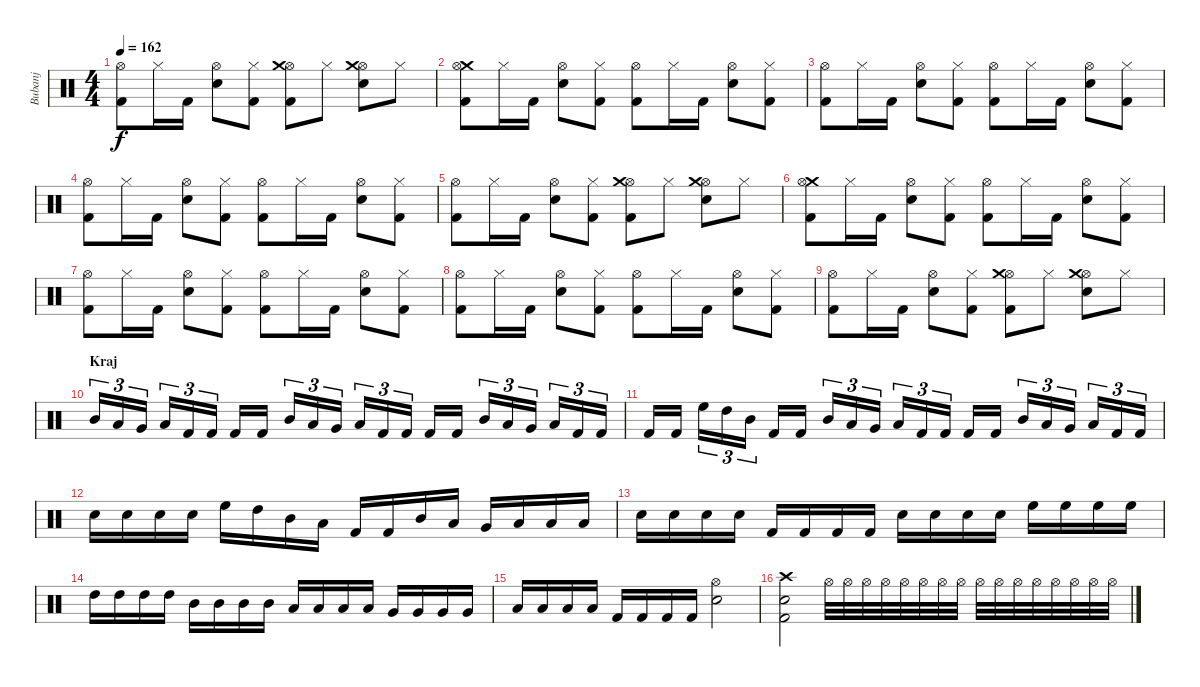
\track ("Bubanj" "Bubanj") {instrument percussion}
\staff {score}
\articulation defaults
\ts (4 4)
\tempo 162
\clef neutral
\ks c
("Hi-Hat (open)" "Kick (hit) 2").8{dy f} "Hi-Hat (closed)".16 "Kick (hit) 2".16 ("Hi-Hat (open)" "Snare (hit) 2").8 ("Hi-Hat (closed)" "Kick (hit) 2").8 ("Hi-Hat (open)" "Kick (hit) 2" "Crash medium (hit)").8 "Hi-Hat (closed)".8 ("Hi-Hat (open)" "Snare (hit) 2" "Crash medium (hit)").8 "Hi-Hat (closed)".8 |
("Crash medium (hit)" "Kick (hit) 2" "Hi-Hat (open)").8 "Hi-Hat (closed)".16 "Kick (hit) 2".16 ("Hi-Hat (open)" "Snare (hit) 2").8 ("Hi-Hat (closed)" "Kick (hit) 2").8 ("Hi-Hat (open)" "Kick (hit) 2").8 "Hi-Hat (closed)".16 "Kick (hit) 2".16 ("Hi-Hat (open)" "Snare (hit) 2").8 ("Hi-Hat (closed)" "Kick (hit) 2").8 |
("Hi-Hat (open)" "Kick (hit) 2").8 "Hi-Hat (closed)".16 "Kick (hit) 2".16 ("Hi-Hat (open)" "Snare (hit) 2").8 ("Hi-Hat (closed)" "Kick (hit) 2").8 ("Hi-Hat (open)" "Kick (hit) 2").8 "Hi-Hat (closed)".16 "Kick (hit) 2".16 ("Hi-Hat (open)" "Snare (hit) 2").8 ("Hi-Hat (closed)" "Kick (hit) 2").8 |
("Hi-Hat (open)" "Kick (hit) 2").8 "Hi-Hat (closed)".16 "Kick (hit) 2".16 ("Hi-Hat (open)" "Snare (hit) 2").8 ("Hi-Hat (closed)" "Kick (hit) 2").8 ("Hi-Hat (open)" "Kick (hit) 2").8 "Hi-Hat (closed)".16 "Kick (hit) 2".16 ("Hi-Hat (open)" "Snare (hit) 2").8 ("Hi-Hat (closed)" "Kick (hit) 2").8 |
("Hi-Hat (open)" "Kick (hit) 2").8 "Hi-Hat (closed)".16 "Kick (hit) 2".16 ("Hi-Hat (open)" "Snare (hit) 2").8 ("Hi-Hat (closed)" "Kick (hit) 2").8 ("Hi-Hat (open)" "Kick (hit) 2" "Crash medium (hit)").8 "Hi-Hat (closed)".8 ("Hi-Hat (open)" "Snare (hit) 2" "Crash medium (hit)").8 "Hi-Hat (closed)".8 |
("Crash medium (hit)" "Kick (hit) 2" "Hi-Hat (open)").8 "Hi-Hat (closed)".16 "Kick (hit) 2".16 ("Hi-Hat (open)" "Snare (hit) 2").8 ("Hi-Hat (closed)" "Kick (hit) 2").8 ("Hi-Hat (open)" "Kick (hit) 2").8 "Hi-Hat (closed)".16 "Kick (hit) 2".16 ("Hi-Hat (open)" "Snare (hit) 2").8 ("Hi-Hat (closed)" "Kick (hit) 2").8 |
("Hi-Hat (open)" "Kick (hit) 2").8 "Hi-Hat (closed)".16 "Kick (hit) 2".16 ("Hi-Hat (open)" "Snare (hit) 2").8 ("Hi-Hat (closed)" "Kick (hit) 2").8 ("Hi-Hat (open)" "Kick (hit) 2").8 "Hi-Hat (closed)".16 "Kick (hit) 2".16 ("Hi-Hat (open)" "Snare (hit) 2").8 ("Hi-Hat (closed)" "Kick (hit) 2").8 |
("Hi-Hat (open)" "Kick (hit) 2").8 "Hi-Hat (closed)".16 "Kick (hit) 2".16 ("Hi-Hat (open)" "Snare (hit) 2").8 ("Hi-Hat (closed)" "Kick (hit) 2").8 ("Hi-Hat (open)" "Kick (hit) 2").8 "Hi-Hat (closed)".16 "Kick (hit) 2".16 ("Hi-Hat (open)" "Snare (hit) 2").8 ("Hi-Hat (closed)" "Kick (hit) 2").8 |
("Hi-Hat (open)" "Kick (hit) 2").8 "Hi-Hat (closed)".16 "Kick (hit) 2".16 ("Hi-Hat (open)" "Snare (hit) 2").8 ("Hi-Hat (closed)" "Kick (hit) 2").8 ("Hi-Hat (open)" "Kick (hit) 2" "Crash medium (hit)").8 "Hi-Hat (closed)".8 ("Hi-Hat (open)" "Snare (hit) 2" "Crash medium (hit)").8 "Hi-Hat (closed)".8 |
\section ("" "Kraj")
"Mid Tom (hit)".16{tu (3 2)} "Low Tom (hit)".16{tu (3 2)} "Very Low Tom (hit)".16{tu (3 2)} "Low Floor Tom (hit)".16{tu (3 2)} "Kick (hit) 2".16{tu (3 2)} "Kick (hit) 2".16{tu (3 2)} "Kick (hit) 2".16 "Kick (hit) 2".16 "Mid Tom (hit)".16{tu (3 2)} "Low Tom (hit)".16{tu (3 2)} "Very Low Tom (hit)".16{tu (3 2)} "Low Floor Tom (hit)".16{tu (3 2)} "Kick (hit) 2".16{tu (3 2)} "Kick (hit) 2".16{tu (3 2)} "Kick (hit) 2".16 "Kick (hit) 2".16 "Mid Tom (hit)".16{tu (3 2)} "Low Tom (hit)".16{tu (3 2)} "Very Low Tom (hit)".16{tu (3 2)} "Low Floor Tom (hit)".16{tu (3 2)} "Kick (hit) 2".16{tu (3 2)} "Kick (hit) 2".16{tu (3 2)} |
"Kick (hit) 2".16 "Kick (hit) 2".16 "High Floor Tom (hit)".16{tu (3 2)} "High Tom (hit)".16{tu (3 2)} "Mid Tom (hit)".16{tu (3 2)} "Kick (hit) 2".16 "Kick (hit) 2".16 "Mid Tom (hit)".16{tu (3 2)} "Low Tom (hit)".16{tu (3 2)} "Very Low Tom (hit)".16{tu (3 2)} "Low Floor Tom (hit)".16{tu (3 2)} "Kick (hit) 2".16{tu (3 2)} "Kick (hit) 2".16{tu (3 2)} "Kick (hit) 2".16 "Kick (hit) 2".16 "Mid Tom (hit)".16{tu (3 2)} "Low Tom (hit)".16{tu (3 2)} "Very Low Tom (hit)".16{tu (3 2)} "Low Floor Tom (hit)".16{tu (3 2)} "Kick (hit) 2".16{tu (3 2)} "Kick (hit) 2".16{tu (3 2)} |
"Snare (hit) 2".16 "Snare (hit) 2".16 "Snare (hit) 2".16 "Snare (hit) 2".16 "High Floor Tom (hit)".16 "High Tom (hit)".16 "Mid Tom (hit)".16 "Low Tom (hit)".16 "Kick (hit) 2".16 "Kick (hit) 2".16 "Mid Tom (hit)".16 "Low Tom (hit)".16 "Very Low Tom (hit)".16 "Low Floor Tom (hit)".16 "Low Floor Tom (hit)".16 "Low Floor Tom (hit)".16 |
"Snare (hit) 2".16 "Snare (hit) 2".16 "Snare (hit) 2".16 "Snare (hit) 2".16 "Kick (hit) 2".16 "Kick (hit) 2".16 "Kick (hit) 2".16 "Kick (hit) 2".16 "Snare (hit) 2".16 "Snare (hit) 2".16 "Snare (hit) 2".16 "Snare (hit) 2".16 "High Floor Tom (hit)".16 "High Floor Tom (hit)".16 "High Floor Tom (hit)".16 "High Floor Tom (hit)".16 |
"High Tom (hit)".16 "High Tom (hit)".16 "High Tom (hit)".16 "High Tom (hit)".16 "Mid Tom (hit)".16 "Mid Tom (hit)".16 "Mid Tom (hit)".16 "Mid Tom (hit)".16 "Low Tom (hit)".16 "Low Tom (hit)".16 "Low Tom (hit)".16 "Low Tom (hit)".16 "Very Low Tom (hit)".16 "Very Low Tom (hit)".16 "Very Low Tom (hit)".16 "Very Low Tom (hit)".16 |
"Low Floor Tom (hit)".16 "Low Floor Tom (hit)".16 "Low Floor Tom (hit)".16 "Low Floor Tom (hit)".16 "Kick (hit) 2".16 "Kick (hit) 2".16 "Kick (hit) 2".16 "Kick (hit) 2".16 ("Snare (hit) 2" "Hi-Hat (open)").2 |
("Crash high (hit)" "Snare (hit) 2" "Kick (hit) 2").2 "Hi-Hat (open)".32 "Hi-Hat (open)".32 "Hi-Hat (open)".32 "Hi-Hat (open)".32 "Hi-Hat (open)".32 "Hi-Hat (open)".32 "Hi-Hat (open)".32 "Hi-Hat (open)".32 "Hi-Hat (open)".32 "Hi-Hat (open)".32 "Hi-Hat (open)".32 "Hi-Hat (open)".32 "Hi-Hat (open)".32 "Hi-Hat (open)".32 "Hi-Hat (open)".32 "Hi-Hat (open)".32
